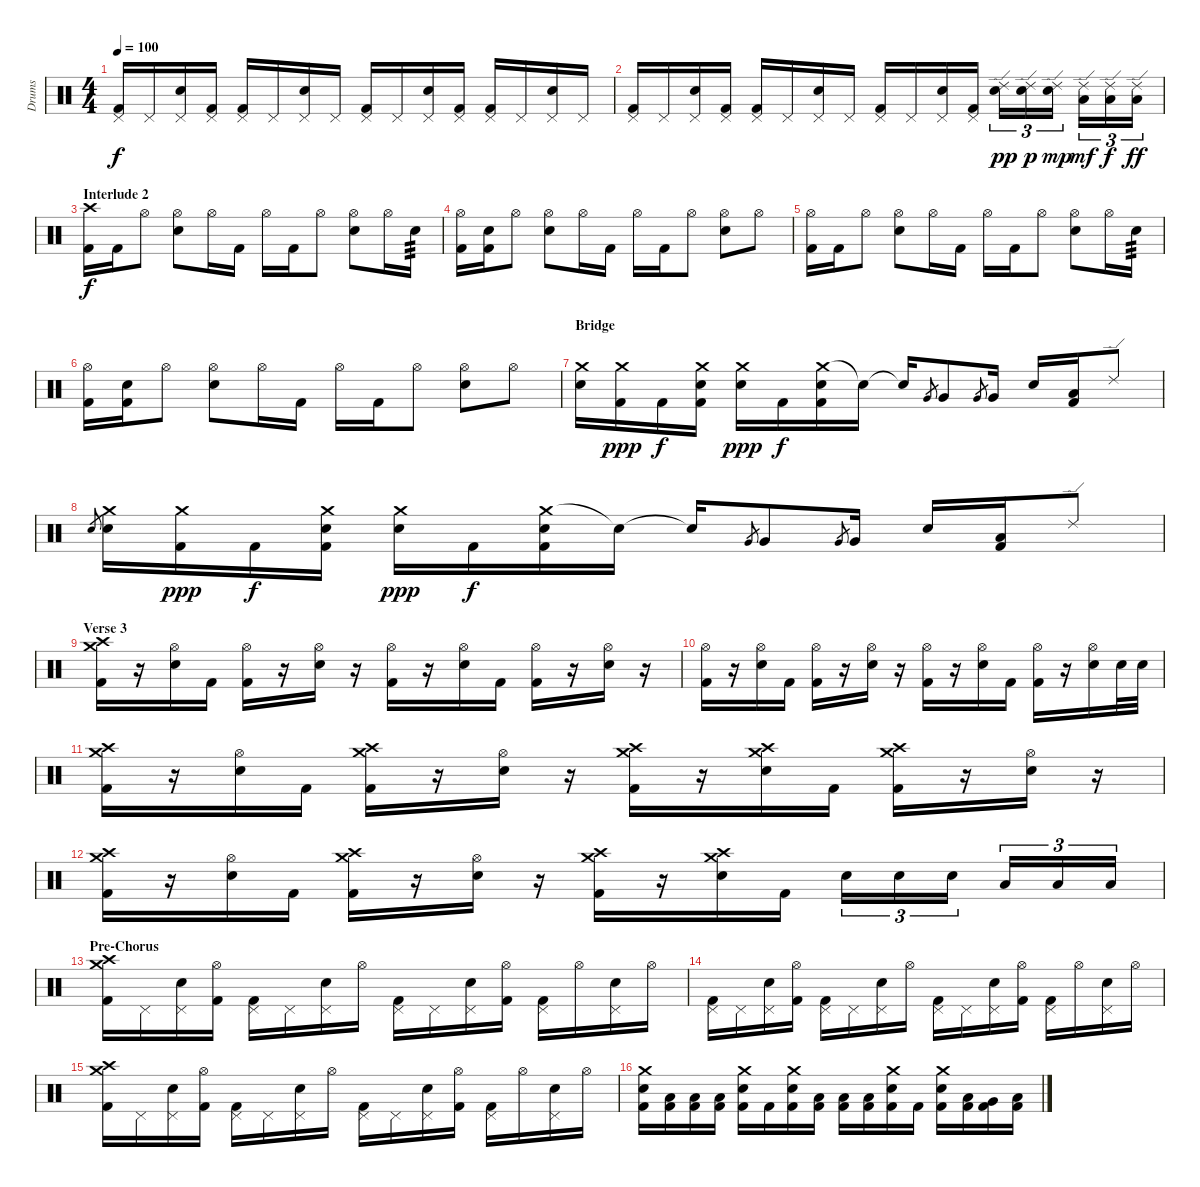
\track ("Drums" "Drums") {instrument percussion}
\staff {score}
\articulation defaults
\ts (4 4)
\tempo 100
\clef neutral
\ks c
("Pedal Hi-Hat (hit)" "Kick (hit) 2").16{dy f} "Pedal Hi-Hat (hit)".16 ("Pedal Hi-Hat (hit)" "Electric Snare (hit)").16 ("Pedal Hi-Hat (hit)" "Kick (hit) 2").16 ("Pedal Hi-Hat (hit)" "Kick (hit) 2").16 "Pedal Hi-Hat (hit)".16 ("Pedal Hi-Hat (hit)" "Electric Snare (hit)").16 "Pedal Hi-Hat (hit)".16 ("Pedal Hi-Hat (hit)" "Kick (hit) 2").16 "Pedal Hi-Hat (hit)".16 ("Pedal Hi-Hat (hit)" "Electric Snare (hit)").16 ("Pedal Hi-Hat (hit)" "Kick (hit) 2").16 ("Pedal Hi-Hat (hit)" "Kick (hit) 2").16 "Pedal Hi-Hat (hit)".16 ("Pedal Hi-Hat (hit)" "Electric Snare (hit)").16 "Pedal Hi-Hat (hit)".16 |
("Pedal Hi-Hat (hit)" "Kick (hit) 2").16 "Pedal Hi-Hat (hit)".16 ("Pedal Hi-Hat (hit)" "Electric Snare (hit)").16 ("Pedal Hi-Hat (hit)" "Kick (hit) 2").16 ("Pedal Hi-Hat (hit)" "Kick (hit) 2").16 "Pedal Hi-Hat (hit)".16 ("Pedal Hi-Hat (hit)" "Electric Snare (hit)").16 "Pedal Hi-Hat (hit)".16 ("Pedal Hi-Hat (hit)" "Kick (hit) 2").16 "Pedal Hi-Hat (hit)".16 ("Pedal Hi-Hat (hit)" "Electric Snare (hit)").16 ("Pedal Hi-Hat (hit)" "Kick (hit) 2").16 ("Ride (edge) 2" "Electric Snare (hit)").16{tu (3 2) dy pp} ("Ride (edge) 2" "Electric Snare (hit)").16{tu (3 2) dy p} ("Ride (edge) 2" "Electric Snare (hit)").16{tu (3 2) dy mp} ("Ride (edge) 2" "Low Tom (hit)").16{tu (3 2) dy mf} ("Ride (edge) 2" "Low Tom (hit)").16{tu (3 2) dy f} ("Ride (edge) 2" "Low Tom (hit)").16{tu (3 2) dy ff} |
\section ("" "Interlude 2")
("Crash high (hit)" "Kick (hit) 2").16{dy f} "Kick (hit) 2".16 "Hi-Hat (open)".8 ("Hi-Hat (open)" "Electric Snare (hit)").8 "Hi-Hat (open)".16 "Kick (hit) 2".16 "Hi-Hat (open)".16 "Kick (hit) 2".16 "Hi-Hat (open)".8 ("Hi-Hat (open)" "Electric Snare (hit)").8 "Hi-Hat (open)".16 "Electric Snare (hit)".16{tp 3} |
("Hi-Hat (open)" "Kick (hit) 2").16 ("Electric Snare (hit)" "Kick (hit) 2").16 "Hi-Hat (open)".8 ("Hi-Hat (open)" "Electric Snare (hit)").8 "Hi-Hat (open)".16 "Kick (hit) 2".16 "Hi-Hat (open)".16 "Kick (hit) 2".16 "Hi-Hat (open)".8 ("Hi-Hat (open)" "Electric Snare (hit)").8 "Hi-Hat (open)".8 |
("Hi-Hat (open)" "Kick (hit) 2").16 "Kick (hit) 2".16 "Hi-Hat (open)".8 ("Hi-Hat (open)" "Electric Snare (hit)").8 "Hi-Hat (open)".16 "Kick (hit) 2".16 "Hi-Hat (open)".16 "Kick (hit) 2".16 "Hi-Hat (open)".8 ("Hi-Hat (open)" "Electric Snare (hit)").8 "Hi-Hat (open)".16 "Electric Snare (hit)".16{tp 3} |
("Hi-Hat (open)" "Kick (hit) 2").16 ("Electric Snare (hit)" "Kick (hit) 2").16 "Hi-Hat (open)".8 ("Hi-Hat (open)" "Electric Snare (hit)").8 "Hi-Hat (open)".16 "Kick (hit) 2".16 "Hi-Hat (open)".16 "Kick (hit) 2".16 "Hi-Hat (open)".8 ("Hi-Hat (open)" "Electric Snare (hit)").8 "Hi-Hat (open)".8 |
\section ("" "Bridge")
("Crash medium (hit)" "Electric Snare (hit)").16 ("Crash medium (hit)" "Kick (hit) 2").16{dy ppp} "Kick (hit) 2".16{dy f} ("Crash medium (hit)" "Electric Snare (hit)" "Kick (hit) 2").16 ("Crash medium (hit)" "Electric Snare (hit)").16{dy ppp} "Kick (hit) 2".16{dy f} ("Crash medium (hit)" "Electric Snare (hit)" "Kick (hit) 2").16 "Electric Snare (hit)"{t}.16 "Electric Snare (hit)"{t}.16 "Very Low Tom (hit)".8{gr} "Very Low Tom (hit)".8 "Very Low Tom (hit)".8{gr} "Very Low Tom (hit)".16 "Electric Snare (hit)".16 ("Low Tom (hit)" "Kick (hit) 2").16 "Ride (edge) 2".8 |
"Electric Snare (hit)".8{gr} ("Crash medium (hit)" "Electric Snare (hit)").16 ("Crash medium (hit)" "Kick (hit) 2").16{dy ppp} "Kick (hit) 2".16{dy f} ("Crash medium (hit)" "Electric Snare (hit)" "Kick (hit) 2").16 ("Crash medium (hit)" "Electric Snare (hit)").16{dy ppp} "Kick (hit) 2".16{dy f} ("Crash medium (hit)" "Electric Snare (hit)" "Kick (hit) 2").16 "Electric Snare (hit)"{t}.16 "Electric Snare (hit)"{t}.16 "Very Low Tom (hit)".8{gr} "Very Low Tom (hit)".8 "Very Low Tom (hit)".8{gr} "Very Low Tom (hit)".16 "Electric Snare (hit)".16 ("Low Tom (hit)" "Kick (hit) 2").16 "Ride (edge) 2".8 |
\section ("" "Verse 3")
("Crash medium (hit)" "Crash high (hit)" "Kick (hit) 2").16 r.16 ("Hi-Hat (open)" "Electric Snare (hit)").16 "Kick (hit) 2".16 ("Hi-Hat (open)" "Kick (hit) 2").16 r.16 ("Hi-Hat (open)" "Electric Snare (hit)").16 r.16 ("Hi-Hat (open)" "Kick (hit) 2").16 r.16 ("Hi-Hat (open)" "Electric Snare (hit)").16 "Kick (hit) 2".16 ("Hi-Hat (open)" "Kick (hit) 2").16 r.16 ("Hi-Hat (open)" "Electric Snare (hit)").16 r.16 |
("Hi-Hat (open)" "Kick (hit) 2").16 r.16 ("Hi-Hat (open)" "Electric Snare (hit)").16 "Kick (hit) 2".16 ("Hi-Hat (open)" "Kick (hit) 2").16 r.16 ("Hi-Hat (open)" "Electric Snare (hit)").16 r.16 ("Hi-Hat (open)" "Kick (hit) 2").16 r.16 ("Hi-Hat (open)" "Electric Snare (hit)").16 "Kick (hit) 2".16 ("Hi-Hat (open)" "Kick (hit) 2").16 r.16 ("Hi-Hat (open)" "Electric Snare (hit)").16 "Electric Snare (hit)".32 "Electric Snare (hit)".32 |
("Crash medium (hit)" "Crash high (hit)" "Kick (hit) 2").16 r.16 ("Hi-Hat (open)" "Electric Snare (hit)").16 "Kick (hit) 2".16 ("Crash medium (hit)" "Crash high (hit)" "Kick (hit) 2").16 r.16 ("Hi-Hat (open)" "Electric Snare (hit)").16 r.16 ("Crash medium (hit)" "Crash high (hit)" "Kick (hit) 2").16 r.16 ("Crash medium (hit)" "Crash high (hit)" "Electric Snare (hit)").16 "Kick (hit) 2".16 ("Crash medium (hit)" "Crash high (hit)" "Kick (hit) 2").16 r.16 ("Hi-Hat (open)" "Electric Snare (hit)").16 r.16 |
("Crash medium (hit)" "Crash high (hit)" "Kick (hit) 2").16 r.16 ("Hi-Hat (open)" "Electric Snare (hit)").16 "Kick (hit) 2".16 ("Crash medium (hit)" "Crash high (hit)" "Kick (hit) 2").16 r.16 ("Hi-Hat (open)" "Electric Snare (hit)").16 r.16 ("Crash medium (hit)" "Crash high (hit)" "Kick (hit) 2").16 r.16 ("Crash medium (hit)" "Crash high (hit)" "Electric Snare (hit)").16 "Kick (hit) 2".16 "Electric Snare (hit)".16{tu (3 2)} "Electric Snare (hit)".16{tu (3 2)} "Electric Snare (hit)".16{tu (3 2)} "Low Tom (hit)".16{tu (3 2)} "Low Tom (hit)".16{tu (3 2)} "Low Tom (hit)".16{tu (3 2)} |
\section ("" "Pre-Chorus")
("Crash medium (hit)" "Crash high (hit)" "Kick (hit) 2").16 "Pedal Hi-Hat (hit)".16 ("Pedal Hi-Hat (hit)" "Electric Snare (hit)").16 ("Hi-Hat (open)" "Kick (hit) 2").16 ("Pedal Hi-Hat (hit)" "Kick (hit) 2").16 "Pedal Hi-Hat (hit)".16 ("Pedal Hi-Hat (hit)" "Electric Snare (hit)").16 "Hi-Hat (open)".16 ("Pedal Hi-Hat (hit)" "Kick (hit) 2").16 "Pedal Hi-Hat (hit)".16 ("Pedal Hi-Hat (hit)" "Electric Snare (hit)").16 ("Hi-Hat (open)" "Kick (hit) 2").16 ("Pedal Hi-Hat (hit)" "Kick (hit) 2").16 "Hi-Hat (open)".16 ("Pedal Hi-Hat (hit)" "Electric Snare (hit)").16 "Hi-Hat (open)".16 |
("Pedal Hi-Hat (hit)" "Kick (hit) 2").16 "Pedal Hi-Hat (hit)".16 ("Pedal Hi-Hat (hit)" "Electric Snare (hit)").16 ("Hi-Hat (open)" "Kick (hit) 2").16 ("Pedal Hi-Hat (hit)" "Kick (hit) 2").16 "Pedal Hi-Hat (hit)".16 ("Pedal Hi-Hat (hit)" "Electric Snare (hit)").16 "Hi-Hat (open)".16 ("Pedal Hi-Hat (hit)" "Kick (hit) 2").16 "Pedal Hi-Hat (hit)".16 ("Pedal Hi-Hat (hit)" "Electric Snare (hit)").16 ("Hi-Hat (open)" "Kick (hit) 2").16 ("Pedal Hi-Hat (hit)" "Kick (hit) 2").16 "Hi-Hat (open)".16 ("Pedal Hi-Hat (hit)" "Electric Snare (hit)").16 "Hi-Hat (open)".16 |
("Crash medium (hit)" "Crash high (hit)" "Kick (hit) 2").16 "Pedal Hi-Hat (hit)".16 ("Pedal Hi-Hat (hit)" "Electric Snare (hit)").16 ("Hi-Hat (open)" "Kick (hit) 2").16 ("Pedal Hi-Hat (hit)" "Kick (hit) 2").16 "Pedal Hi-Hat (hit)".16 ("Pedal Hi-Hat (hit)" "Electric Snare (hit)").16 "Hi-Hat (open)".16 ("Pedal Hi-Hat (hit)" "Kick (hit) 2").16 "Pedal Hi-Hat (hit)".16 ("Pedal Hi-Hat (hit)" "Electric Snare (hit)").16 ("Hi-Hat (open)" "Kick (hit) 2").16 ("Pedal Hi-Hat (hit)" "Kick (hit) 2").16 "Hi-Hat (open)".16 ("Pedal Hi-Hat (hit)" "Electric Snare (hit)").16 "Hi-Hat (open)".16 |
("Crash medium (hit)" "Electric Snare (hit)" "Kick (hit) 2").16 ("Low Tom (hit)" "Kick (hit) 2").16 ("Low Tom (hit)" "Kick (hit) 2").16 ("Low Tom (hit)" "Kick (hit) 2").16 ("Crash medium (hit)" "Electric Snare (hit)" "Kick (hit) 2").16 "Kick (hit) 2".16 ("Crash medium (hit)" "Electric Snare (hit)" "Kick (hit) 2").16 ("Low Tom (hit)" "Kick (hit) 2").16 ("Low Tom (hit)" "Kick (hit) 2").16 ("Low Tom (hit)" "Kick (hit) 2").16 ("Crash medium (hit)" "Electric Snare (hit)" "Kick (hit) 2").16 "Kick (hit) 2".16 ("Crash medium (hit)" "Electric Snare (hit)" "Kick (hit) 2").16 ("Low Tom (hit)" "Kick (hit) 2").16 ("Very Low Tom (hit)" "Kick (hit) 2").16 ("Low Floor Tom (hit)" "Kick (hit) 2").16
